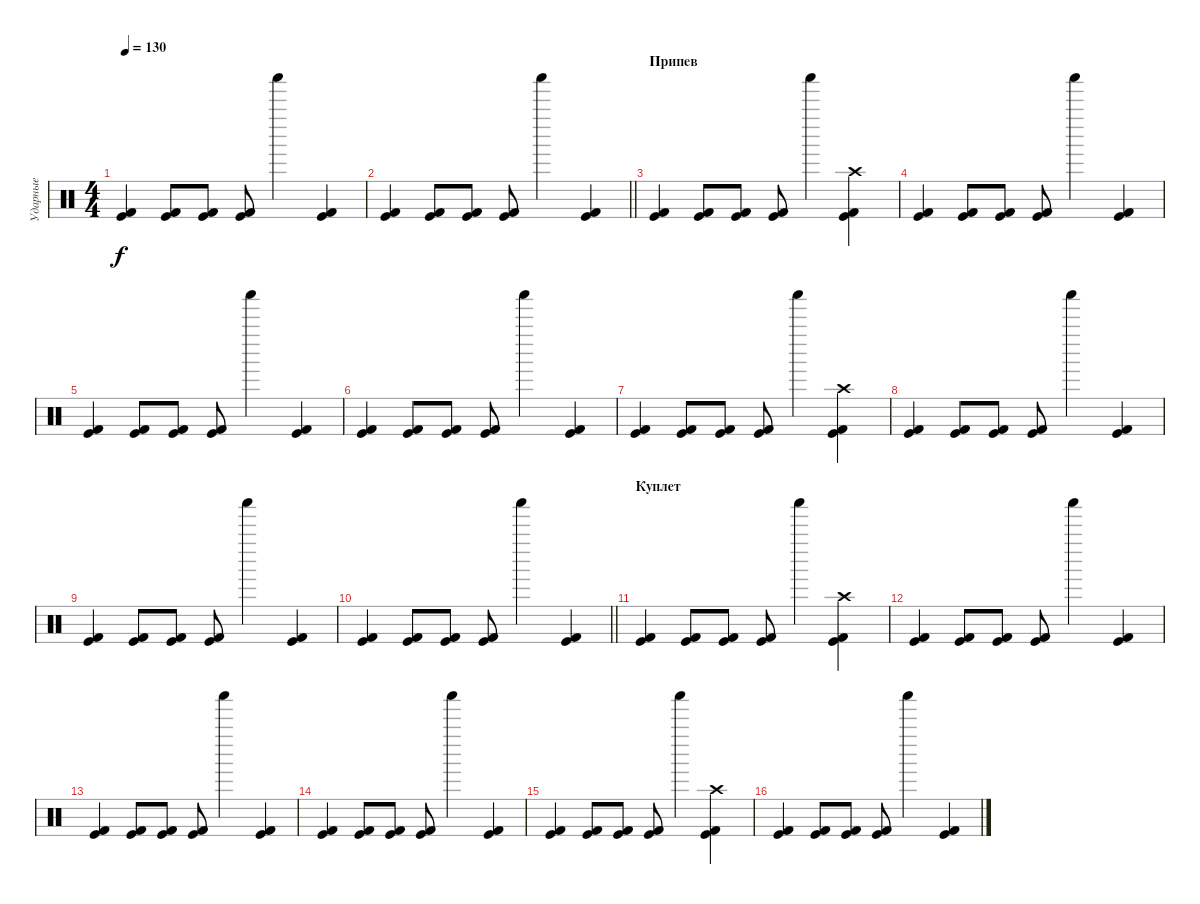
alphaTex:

\track ("Ударные" "Ударные") {instrument percussion}
\staff {score}
\articulation defaults
\ts (4 4)
\tempo 130
\clef neutral
\ks c
("Kick (hit)" "Kick (hit) 2").4{dy f} ("Kick (hit)" "Kick (hit) 2").8 ("Kick (hit)" "Kick (hit) 2").8 ("Kick (hit)" "Kick (hit) 2").8 "Shaker (hit)".4 ("Kick (hit)" "Kick (hit) 2").4 |
\barLineRight lightlight
("Kick (hit)" "Kick (hit) 2").4 ("Kick (hit)" "Kick (hit) 2").8 ("Kick (hit)" "Kick (hit) 2").8 ("Kick (hit)" "Kick (hit) 2").8 "Shaker (hit)".4 ("Kick (hit)" "Kick (hit) 2").4 |
\section ("" "Припев")
("Kick (hit)" "Kick (hit) 2").4 ("Kick (hit)" "Kick (hit) 2").8 ("Kick (hit)" "Kick (hit) 2").8 ("Kick (hit)" "Kick (hit) 2").8 "Shaker (hit)".4 ("Kick (hit)" "Kick (hit) 2" "Crash high (hit)").4 |
("Kick (hit)" "Kick (hit) 2").4 ("Kick (hit)" "Kick (hit) 2").8 ("Kick (hit)" "Kick (hit) 2").8 ("Kick (hit)" "Kick (hit) 2").8 "Shaker (hit)".4 ("Kick (hit)" "Kick (hit) 2").4 |
("Kick (hit)" "Kick (hit) 2").4 ("Kick (hit)" "Kick (hit) 2").8 ("Kick (hit)" "Kick (hit) 2").8 ("Kick (hit)" "Kick (hit) 2").8 "Shaker (hit)".4 ("Kick (hit)" "Kick (hit) 2").4 |
("Kick (hit)" "Kick (hit) 2").4 ("Kick (hit)" "Kick (hit) 2").8 ("Kick (hit)" "Kick (hit) 2").8 ("Kick (hit)" "Kick (hit) 2").8 "Shaker (hit)".4 ("Kick (hit)" "Kick (hit) 2").4 |
("Kick (hit)" "Kick (hit) 2").4 ("Kick (hit)" "Kick (hit) 2").8 ("Kick (hit)" "Kick (hit) 2").8 ("Kick (hit)" "Kick (hit) 2").8 "Shaker (hit)".4 ("Kick (hit)" "Kick (hit) 2" "Crash high (hit)").4 |
("Kick (hit)" "Kick (hit) 2").4 ("Kick (hit)" "Kick (hit) 2").8 ("Kick (hit)" "Kick (hit) 2").8 ("Kick (hit)" "Kick (hit) 2").8 "Shaker (hit)".4 ("Kick (hit)" "Kick (hit) 2").4 |
("Kick (hit)" "Kick (hit) 2").4 ("Kick (hit)" "Kick (hit) 2").8 ("Kick (hit)" "Kick (hit) 2").8 ("Kick (hit)" "Kick (hit) 2").8 "Shaker (hit)".4 ("Kick (hit)" "Kick (hit) 2").4 |
\barLineRight lightlight
("Kick (hit)" "Kick (hit) 2").4 ("Kick (hit)" "Kick (hit) 2").8 ("Kick (hit)" "Kick (hit) 2").8 ("Kick (hit)" "Kick (hit) 2").8 "Shaker (hit)".4 ("Kick (hit)" "Kick (hit) 2").4 |
\section ("" "Куплет")
("Kick (hit)" "Kick (hit) 2").4 ("Kick (hit)" "Kick (hit) 2").8 ("Kick (hit)" "Kick (hit) 2").8 ("Kick (hit)" "Kick (hit) 2").8 "Shaker (hit)".4 ("Kick (hit)" "Kick (hit) 2" "Crash high (hit)").4 |
("Kick (hit)" "Kick (hit) 2").4 ("Kick (hit)" "Kick (hit) 2").8 ("Kick (hit)" "Kick (hit) 2").8 ("Kick (hit)" "Kick (hit) 2").8 "Shaker (hit)".4 ("Kick (hit)" "Kick (hit) 2").4 |
("Kick (hit)" "Kick (hit) 2").4 ("Kick (hit)" "Kick (hit) 2").8 ("Kick (hit)" "Kick (hit) 2").8 ("Kick (hit)" "Kick (hit) 2").8 "Shaker (hit)".4 ("Kick (hit)" "Kick (hit) 2").4 |
("Kick (hit)" "Kick (hit) 2").4 ("Kick (hit)" "Kick (hit) 2").8 ("Kick (hit)" "Kick (hit) 2").8 ("Kick (hit)" "Kick (hit) 2").8 "Shaker (hit)".4 ("Kick (hit)" "Kick (hit) 2").4 |
("Kick (hit)" "Kick (hit) 2").4 ("Kick (hit)" "Kick (hit) 2").8 ("Kick (hit)" "Kick (hit) 2").8 ("Kick (hit)" "Kick (hit) 2").8 "Shaker (hit)".4 ("Kick (hit)" "Kick (hit) 2" "Crash high (hit)").4 |
("Kick (hit)" "Kick (hit) 2").4 ("Kick (hit)" "Kick (hit) 2").8 ("Kick (hit)" "Kick (hit) 2").8 ("Kick (hit)" "Kick (hit) 2").8 "Shaker (hit)".4 ("Kick (hit)" "Kick (hit) 2").4
